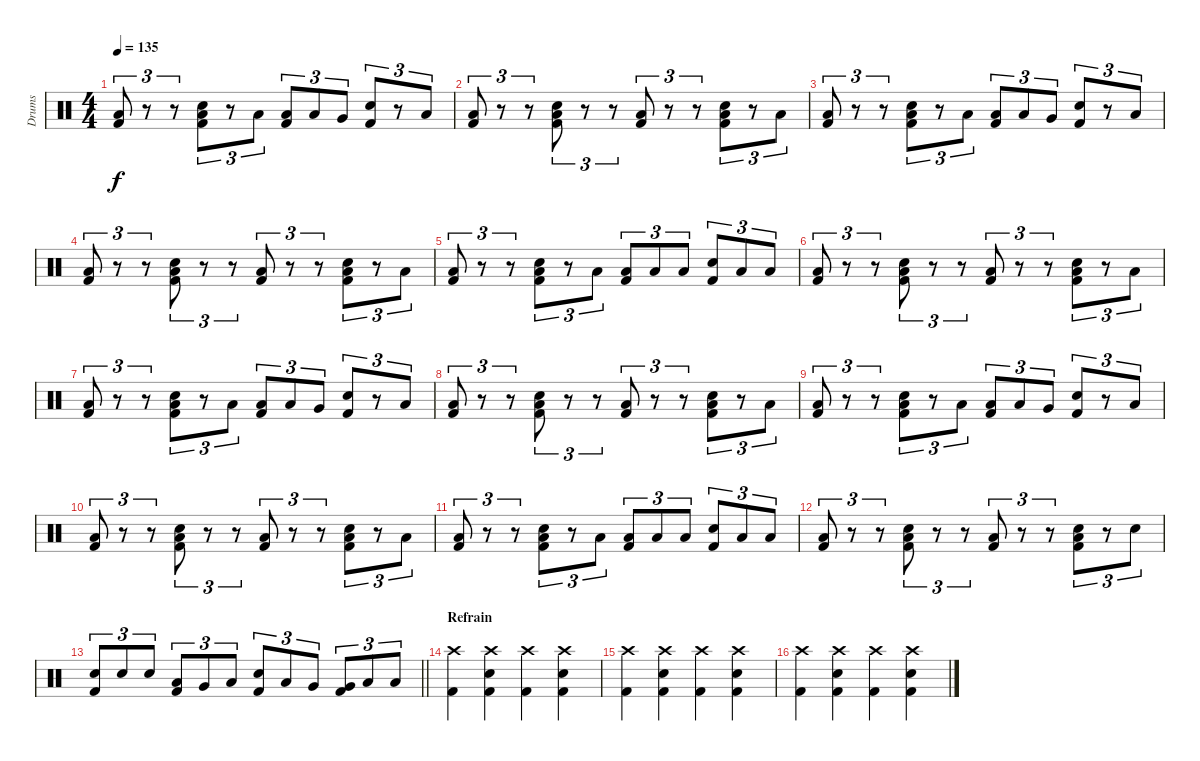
\track ("Drums" "Drums") {instrument percussion}
\staff {score}
\articulation defaults
\ts (4 4)
\tempo 135
\clef neutral
\ks c
("Low Floor Tom (hit)" "Kick (hit) 2").8{tu (3 2) dy f} r.8{tu (3 2)} r.8{tu (3 2)} ("Electric Snare (hit)" "Low Floor Tom (hit)" "Kick (hit) 2").8{tu (3 2)} r.8{tu (3 2)} "Low Floor Tom (hit)".8{tu (3 2)} ("Low Floor Tom (hit)" "Kick (hit) 2").8{tu (3 2)} "Low Tom (hit)".8{tu (3 2)} "Very Low Tom (hit)".8{tu (3 2)} ("Electric Snare (hit)" "Kick (hit) 2").8{tu (3 2)} r.8{tu (3 2)} "Low Floor Tom (hit)".8{tu (3 2)} |
("Low Floor Tom (hit)" "Kick (hit) 2").8{tu (3 2)} r.8{tu (3 2)} r.8{tu (3 2)} ("Electric Snare (hit)" "Low Floor Tom (hit)" "Kick (hit) 2").8{tu (3 2)} r.8{tu (3 2)} r.8{tu (3 2)} ("Low Floor Tom (hit)" "Kick (hit) 2").8{tu (3 2)} r.8{tu (3 2)} r.8{tu (3 2)} ("Electric Snare (hit)" "Low Floor Tom (hit)" "Kick (hit) 2").8{tu (3 2)} r.8{tu (3 2)} "Low Floor Tom (hit)".8{tu (3 2)} |
("Low Floor Tom (hit)" "Kick (hit) 2").8{tu (3 2)} r.8{tu (3 2)} r.8{tu (3 2)} ("Electric Snare (hit)" "Low Floor Tom (hit)" "Kick (hit) 2").8{tu (3 2)} r.8{tu (3 2)} "Low Floor Tom (hit)".8{tu (3 2)} ("Low Floor Tom (hit)" "Kick (hit) 2").8{tu (3 2)} "Low Tom (hit)".8{tu (3 2)} "Very Low Tom (hit)".8{tu (3 2)} ("Electric Snare (hit)" "Kick (hit) 2").8{tu (3 2)} r.8{tu (3 2)} "Low Floor Tom (hit)".8{tu (3 2)} |
("Low Floor Tom (hit)" "Kick (hit) 2").8{tu (3 2)} r.8{tu (3 2)} r.8{tu (3 2)} ("Electric Snare (hit)" "Low Floor Tom (hit)" "Kick (hit) 2").8{tu (3 2)} r.8{tu (3 2)} r.8{tu (3 2)} ("Low Floor Tom (hit)" "Kick (hit) 2").8{tu (3 2)} r.8{tu (3 2)} r.8{tu (3 2)} ("Electric Snare (hit)" "Low Floor Tom (hit)" "Kick (hit) 2").8{tu (3 2)} r.8{tu (3 2)} "Low Floor Tom (hit)".8{tu (3 2)} |
("Low Floor Tom (hit)" "Kick (hit) 2").8{tu (3 2)} r.8{tu (3 2)} r.8{tu (3 2)} ("Electric Snare (hit)" "Low Floor Tom (hit)" "Kick (hit) 2").8{tu (3 2)} r.8{tu (3 2)} "Low Floor Tom (hit)".8{tu (3 2)} ("Low Floor Tom (hit)" "Kick (hit) 2").8{tu (3 2)} "Low Floor Tom (hit)".8{tu (3 2)} "Low Floor Tom (hit)".8{tu (3 2)} ("Electric Snare (hit)" "Kick (hit) 2").8{tu (3 2)} "Low Floor Tom (hit)".8{tu (3 2)} "Low Floor Tom (hit)".8{tu (3 2)} |
("Low Floor Tom (hit)" "Kick (hit) 2").8{tu (3 2)} r.8{tu (3 2)} r.8{tu (3 2)} ("Electric Snare (hit)" "Low Floor Tom (hit)" "Kick (hit) 2").8{tu (3 2)} r.8{tu (3 2)} r.8{tu (3 2)} ("Low Floor Tom (hit)" "Kick (hit) 2").8{tu (3 2)} r.8{tu (3 2)} r.8{tu (3 2)} ("Electric Snare (hit)" "Low Floor Tom (hit)" "Kick (hit) 2").8{tu (3 2)} r.8{tu (3 2)} "Low Floor Tom (hit)".8{tu (3 2)} |
("Low Floor Tom (hit)" "Kick (hit) 2").8{tu (3 2)} r.8{tu (3 2)} r.8{tu (3 2)} ("Electric Snare (hit)" "Low Floor Tom (hit)" "Kick (hit) 2").8{tu (3 2)} r.8{tu (3 2)} "Low Floor Tom (hit)".8{tu (3 2)} ("Low Floor Tom (hit)" "Kick (hit) 2").8{tu (3 2)} "Low Tom (hit)".8{tu (3 2)} "Very Low Tom (hit)".8{tu (3 2)} ("Electric Snare (hit)" "Kick (hit) 2").8{tu (3 2)} r.8{tu (3 2)} "Low Floor Tom (hit)".8{tu (3 2)} |
("Low Floor Tom (hit)" "Kick (hit) 2").8{tu (3 2)} r.8{tu (3 2)} r.8{tu (3 2)} ("Electric Snare (hit)" "Low Floor Tom (hit)" "Kick (hit) 2").8{tu (3 2)} r.8{tu (3 2)} r.8{tu (3 2)} ("Low Floor Tom (hit)" "Kick (hit) 2").8{tu (3 2)} r.8{tu (3 2)} r.8{tu (3 2)} ("Electric Snare (hit)" "Low Floor Tom (hit)" "Kick (hit) 2").8{tu (3 2)} r.8{tu (3 2)} "Low Floor Tom (hit)".8{tu (3 2)} |
("Low Floor Tom (hit)" "Kick (hit) 2").8{tu (3 2)} r.8{tu (3 2)} r.8{tu (3 2)} ("Electric Snare (hit)" "Low Floor Tom (hit)" "Kick (hit) 2").8{tu (3 2)} r.8{tu (3 2)} "Low Floor Tom (hit)".8{tu (3 2)} ("Low Floor Tom (hit)" "Kick (hit) 2").8{tu (3 2)} "Low Tom (hit)".8{tu (3 2)} "Very Low Tom (hit)".8{tu (3 2)} ("Electric Snare (hit)" "Kick (hit) 2").8{tu (3 2)} r.8{tu (3 2)} "Low Floor Tom (hit)".8{tu (3 2)} |
("Low Floor Tom (hit)" "Kick (hit) 2").8{tu (3 2)} r.8{tu (3 2)} r.8{tu (3 2)} ("Electric Snare (hit)" "Low Floor Tom (hit)" "Kick (hit) 2").8{tu (3 2)} r.8{tu (3 2)} r.8{tu (3 2)} ("Low Floor Tom (hit)" "Kick (hit) 2").8{tu (3 2)} r.8{tu (3 2)} r.8{tu (3 2)} ("Electric Snare (hit)" "Low Floor Tom (hit)" "Kick (hit) 2").8{tu (3 2)} r.8{tu (3 2)} "Low Floor Tom (hit)".8{tu (3 2)} |
("Low Floor Tom (hit)" "Kick (hit) 2").8{tu (3 2)} r.8{tu (3 2)} r.8{tu (3 2)} ("Electric Snare (hit)" "Low Floor Tom (hit)" "Kick (hit) 2").8{tu (3 2)} r.8{tu (3 2)} "Low Floor Tom (hit)".8{tu (3 2)} ("Low Floor Tom (hit)" "Kick (hit) 2").8{tu (3 2)} "Low Floor Tom (hit)".8{tu (3 2)} "Low Floor Tom (hit)".8{tu (3 2)} ("Electric Snare (hit)" "Kick (hit) 2").8{tu (3 2)} "Low Floor Tom (hit)".8{tu (3 2)} "Low Floor Tom (hit)".8{tu (3 2)} |
("Low Floor Tom (hit)" "Kick (hit) 2").8{tu (3 2)} r.8{tu (3 2)} r.8{tu (3 2)} ("Electric Snare (hit)" "Low Floor Tom (hit)" "Kick (hit) 2").8{tu (3 2)} r.8{tu (3 2)} r.8{tu (3 2)} ("Low Floor Tom (hit)" "Kick (hit) 2").8{tu (3 2)} r.8{tu (3 2)} r.8{tu (3 2)} ("Electric Snare (hit)" "Low Floor Tom (hit)" "Kick (hit) 2").8{tu (3 2)} r.8{tu (3 2)} "Electric Snare (hit)".8{tu (3 2)} |
\barLineRight lightlight
("Electric Snare (hit)" "Kick (hit) 2").8{tu (3 2)} "Electric Snare (hit)".8{tu (3 2)} "Electric Snare (hit)".8{tu (3 2)} ("Low Tom (hit)" "Kick (hit) 2").8{tu (3 2)} "Very Low Tom (hit)".8{tu (3 2)} "Low Floor Tom (hit)".8{tu (3 2)} ("Electric Snare (hit)" "Kick (hit) 2").8{tu (3 2)} "Low Tom (hit)".8{tu (3 2)} "Very Low Tom (hit)".8{tu (3 2)} ("Very Low Tom (hit)" "Kick (hit) 2").8{tu (3 2)} "Low Floor Tom (hit)".8{tu (3 2)} "Low Floor Tom (hit)".8{tu (3 2)} |
\section ("" "Refrain")
("Crash high (hit)" "Kick (hit) 2").4 ("Crash high (hit)" "Electric Snare (hit)" "Kick (hit) 2").4 ("Crash high (hit)" "Kick (hit) 2").4 ("Crash high (hit)" "Electric Snare (hit)" "Kick (hit) 2").4 |
("Crash high (hit)" "Kick (hit) 2").4 ("Crash high (hit)" "Electric Snare (hit)" "Kick (hit) 2").4 ("Crash high (hit)" "Kick (hit) 2").4 ("Crash high (hit)" "Electric Snare (hit)" "Kick (hit) 2").4 |
("Crash high (hit)" "Kick (hit) 2").4 ("Crash high (hit)" "Electric Snare (hit)" "Kick (hit) 2").4 ("Crash high (hit)" "Kick (hit) 2").4 ("Crash high (hit)" "Electric Snare (hit)" "Kick (hit) 2").4
